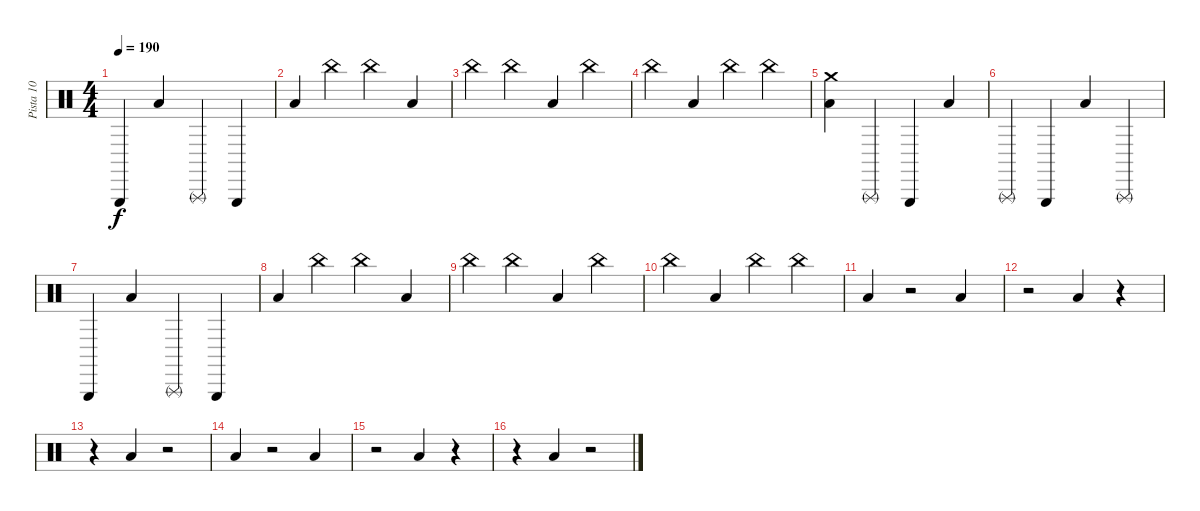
\track ("Pista 10" "Pista 10") {instrument percussion}
\staff {score}
\articulation defaults
\ts (4 4)
\tempo 190
\clef neutral
\ks c "Triangle (hit)".4{dy f} "Low Floor Tom (hit)".4 "Triangle (rnute)".4 "Triangle (hit)".4
|
"Low Floor Tom (hit)".4 "China (hit)".4 "China (hit)".4 "Low Floor Tom (hit)".4 |
"China (hit)".4 "China (hit)".4 "Low Floor Tom (hit)".4 "China (hit)".4 |
"China (hit)".4 "Low Floor Tom (hit)".4 "China (hit)".4 "China (hit)".4 |
("Crash medium (hit)" "Low Floor Tom (hit)").4 "Triangle (rnute)".4 "Triangle (hit)".4 "Low Floor Tom (hit)".4 |
"Triangle (rnute)".4 "Triangle (hit)".4 "Low Floor Tom (hit)".4 "Triangle (rnute)".4 |
"Triangle (hit)".4 "Low Floor Tom (hit)".4 "Triangle (rnute)".4 "Triangle (hit)".4 |
"Low Floor Tom (hit)".4 "China (hit)".4 "China (hit)".4 "Low Floor Tom (hit)".4 |
"China (hit)".4 "China (hit)".4 "Low Floor Tom (hit)".4 "China (hit)".4 |
"China (hit)".4 "Low Floor Tom (hit)".4 "China (hit)".4 "China (hit)".4 |
"Low Floor Tom (hit)".4 r.2 "Low Floor Tom (hit)".4 |
r.2 "Low Floor Tom (hit)".4 r.4 |
r.4 "Low Floor Tom (hit)".4 r.2 |
"Low Floor Tom (hit)".4 r.2 "Low Floor Tom (hit)".4 |
r.2 "Low Floor Tom (hit)".4 r.4 |
r.4 "Low Floor Tom (hit)".4 r.2
